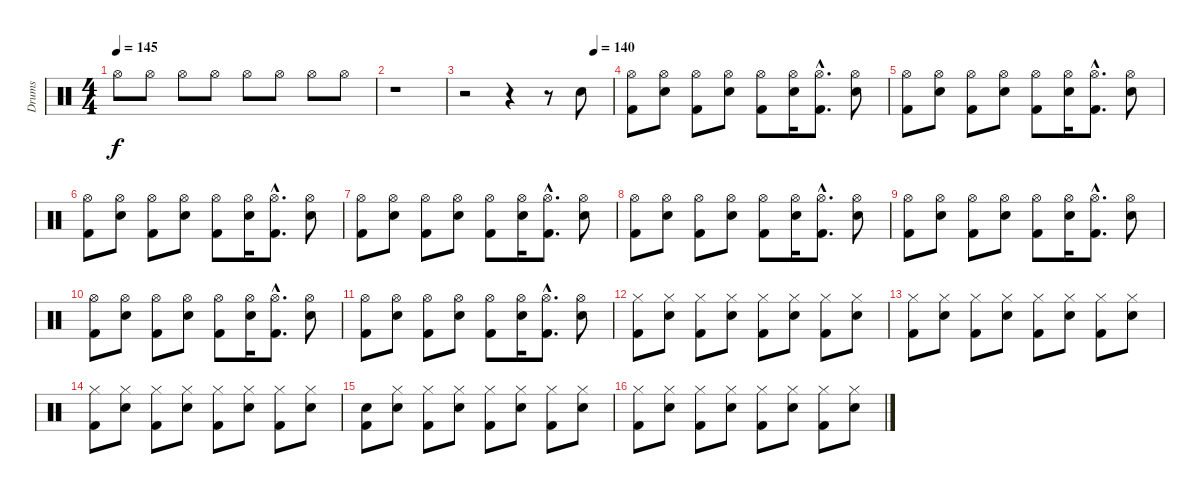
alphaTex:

\track ("Drums" "Drums") {instrument percussion}
\staff {score}
\articulation defaults
\ts (4 4)
\tempo 145
\tempo 130
\tempo 145
\clef neutral
\ks c "Hi-Hat (open)".8{dy f} "Hi-Hat (open)".8 "Hi-Hat (open)".8 "Hi-Hat (open)".8 "Hi-Hat (open)".8 "Hi-Hat (open)".8 "Hi-Hat (open)".8 "Hi-Hat (open)".8
|
r.1 |
\tempo (140 0.875)
r.2 r.4 r.8 "Electric Snare (hit)".8 |
("Hi-Hat (open)" "Kick (hit) 2").8 ("Hi-Hat (open)" "Electric Snare (hit)").8 ("Hi-Hat (open)" "Kick (hit) 2").8 ("Hi-Hat (open)" "Electric Snare (hit)").8 ("Hi-Hat (open)" "Kick (hit) 2").8 ("Hi-Hat (open)" "Electric Snare (hit)").16 ("Hi-Hat (open)"{hac} "Kick (hit) 2"{hac}).8{d} ("Hi-Hat (open)" "Electric Snare (hit)").8 |
("Hi-Hat (open)" "Kick (hit) 2").8 ("Hi-Hat (open)" "Electric Snare (hit)").8 ("Hi-Hat (open)" "Kick (hit) 2").8 ("Hi-Hat (open)" "Electric Snare (hit)").8 ("Hi-Hat (open)" "Kick (hit) 2").8 ("Hi-Hat (open)" "Electric Snare (hit)").16 ("Hi-Hat (open)"{hac} "Kick (hit) 2"{hac}).8{d} ("Hi-Hat (open)" "Electric Snare (hit)").8 |
("Hi-Hat (open)" "Kick (hit) 2").8 ("Hi-Hat (open)" "Electric Snare (hit)").8 ("Hi-Hat (open)" "Kick (hit) 2").8 ("Hi-Hat (open)" "Electric Snare (hit)").8 ("Hi-Hat (open)" "Kick (hit) 2").8 ("Hi-Hat (open)" "Electric Snare (hit)").16 ("Hi-Hat (open)"{hac} "Kick (hit) 2"{hac}).8{d} ("Hi-Hat (open)" "Electric Snare (hit)").8 |
("Hi-Hat (open)" "Kick (hit) 2").8 ("Hi-Hat (open)" "Electric Snare (hit)").8 ("Hi-Hat (open)" "Kick (hit) 2").8 ("Hi-Hat (open)" "Electric Snare (hit)").8 ("Hi-Hat (open)" "Kick (hit) 2").8 ("Hi-Hat (open)" "Electric Snare (hit)").16 ("Hi-Hat (open)"{hac} "Kick (hit) 2"{hac}).8{d} ("Hi-Hat (open)" "Electric Snare (hit)").8 |
("Hi-Hat (open)" "Kick (hit) 2").8 ("Hi-Hat (open)" "Electric Snare (hit)").8 ("Hi-Hat (open)" "Kick (hit) 2").8 ("Hi-Hat (open)" "Electric Snare (hit)").8 ("Hi-Hat (open)" "Kick (hit) 2").8 ("Hi-Hat (open)" "Electric Snare (hit)").16 ("Hi-Hat (open)"{hac} "Kick (hit) 2"{hac}).8{d} ("Hi-Hat (open)" "Electric Snare (hit)").8 |
("Hi-Hat (open)" "Kick (hit) 2").8 ("Hi-Hat (open)" "Electric Snare (hit)").8 ("Hi-Hat (open)" "Kick (hit) 2").8 ("Hi-Hat (open)" "Electric Snare (hit)").8 ("Hi-Hat (open)" "Kick (hit) 2").8 ("Hi-Hat (open)" "Electric Snare (hit)").16 ("Hi-Hat (open)"{hac} "Kick (hit) 2"{hac}).8{d} ("Hi-Hat (open)" "Electric Snare (hit)").8 |
("Hi-Hat (open)" "Kick (hit) 2").8 ("Hi-Hat (open)" "Electric Snare (hit)").8 ("Hi-Hat (open)" "Kick (hit) 2").8 ("Hi-Hat (open)" "Electric Snare (hit)").8 ("Hi-Hat (open)" "Kick (hit) 2").8 ("Hi-Hat (open)" "Electric Snare (hit)").16 ("Hi-Hat (open)"{hac} "Kick (hit) 2"{hac}).8{d} ("Hi-Hat (open)" "Electric Snare (hit)").8 |
("Hi-Hat (open)" "Kick (hit) 2").8 ("Hi-Hat (open)" "Electric Snare (hit)").8 ("Hi-Hat (open)" "Kick (hit) 2").8 ("Hi-Hat (open)" "Electric Snare (hit)").8 ("Hi-Hat (open)" "Kick (hit) 2").8 ("Hi-Hat (open)" "Electric Snare (hit)").16 ("Hi-Hat (open)"{hac} "Kick (hit) 2"{hac}).8{d} ("Hi-Hat (open)" "Electric Snare (hit)").8 |
("Hi-Hat (closed)" "Kick (hit) 2").8 ("Hi-Hat (closed)" "Electric Snare (hit)").8 ("Hi-Hat (closed)" "Kick (hit) 2").8 ("Hi-Hat (closed)" "Electric Snare (hit)").8 ("Hi-Hat (closed)" "Kick (hit) 2").8 ("Hi-Hat (closed)" "Electric Snare (hit)").8 ("Hi-Hat (closed)" "Kick (hit) 2").8 ("Hi-Hat (closed)" "Electric Snare (hit)").8 |
("Hi-Hat (closed)" "Kick (hit) 2").8 ("Hi-Hat (closed)" "Electric Snare (hit)").8 ("Hi-Hat (closed)" "Kick (hit) 2").8 ("Hi-Hat (closed)" "Electric Snare (hit)").8 ("Hi-Hat (closed)" "Kick (hit) 2").8 ("Hi-Hat (closed)" "Electric Snare (hit)").8 ("Hi-Hat (closed)" "Kick (hit) 2").8 ("Hi-Hat (closed)" "Electric Snare (hit)").8 |
("Hi-Hat (closed)" "Kick (hit) 2").8 ("Hi-Hat (closed)" "Electric Snare (hit)").8 ("Hi-Hat (closed)" "Kick (hit) 2").8 ("Hi-Hat (closed)" "Electric Snare (hit)").8 ("Hi-Hat (closed)" "Kick (hit) 2").8 ("Hi-Hat (closed)" "Electric Snare (hit)").8 ("Hi-Hat (closed)" "Kick (hit) 2").8 ("Hi-Hat (closed)" "Electric Snare (hit)").8 |
("Snare (hit)" "Kick (hit) 2").8 ("Hi-Hat (closed)" "Electric Snare (hit)").8 ("Hi-Hat (closed)" "Kick (hit) 2").8 ("Hi-Hat (closed)" "Electric Snare (hit)").8 ("Hi-Hat (closed)" "Kick (hit) 2").8 ("Hi-Hat (closed)" "Electric Snare (hit)").8 ("Hi-Hat (closed)" "Kick (hit) 2").8 ("Hi-Hat (closed)" "Electric Snare (hit)").8 |
("Hi-Hat (closed)" "Kick (hit) 2").8 ("Hi-Hat (closed)" "Electric Snare (hit)").8 ("Hi-Hat (closed)" "Kick (hit) 2").8 ("Hi-Hat (closed)" "Electric Snare (hit)").8 ("Hi-Hat (closed)" "Kick (hit) 2").8 ("Hi-Hat (closed)" "Electric Snare (hit)").8 ("Hi-Hat (closed)" "Kick (hit) 2").8 ("Hi-Hat (closed)" "Electric Snare (hit)").8
